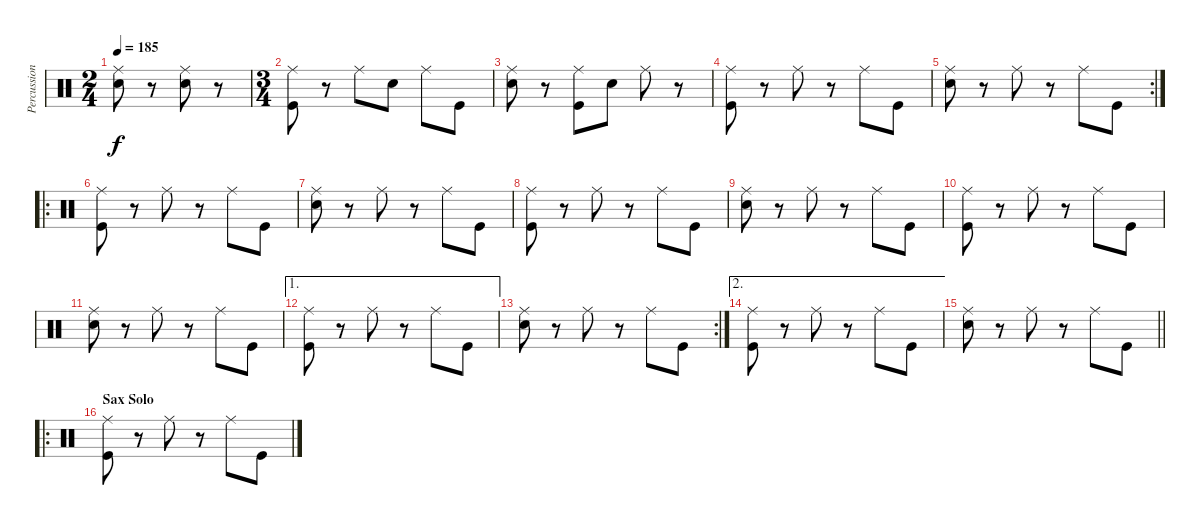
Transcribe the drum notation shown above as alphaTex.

\track ("Percussion" "Percussion") {instrument percussion}
\staff {score}
\articulation defaults
\ts (2 4)
\tempo 185
\clef neutral
\ks c
("Ride (middle)" "Snare (hit) 2").8{dy f} r.8 ("Ride (middle)" "Snare (hit) 2").8 r.8 |
\ts (3 4)
("Ride (middle)" "Kick (hit)").8 r.8 "Ride (middle)".8 "Snare (hit) 2".8 "Ride (middle)".8 "Kick (hit)".8 |
("Ride (middle)" "Snare (hit) 2").8 r.8 ("Ride (middle)" "Kick (hit)").8 "Snare (hit) 2".8 "Ride (middle)".8 r.8 |
("Ride (middle)" "Kick (hit)").8 r.8 "Ride (middle)".8 r.8 "Ride (middle)".8 "Kick (hit)".8 |
\rc 2
("Ride (middle)" "Snare (hit) 2").8 r.8 "Ride (middle)".8 r.8 "Ride (middle)".8 "Kick (hit)".8 |
\ro
("Ride (middle)" "Kick (hit)").8 r.8 "Ride (middle)".8 r.8 "Ride (middle)".8 "Kick (hit)".8 |
("Ride (middle)" "Snare (hit) 2").8 r.8 "Ride (middle)".8 r.8 "Ride (middle)".8 "Kick (hit)".8 |
("Ride (middle)" "Kick (hit)").8 r.8 "Ride (middle)".8 r.8 "Ride (middle)".8 "Kick (hit)".8 |
("Ride (middle)" "Snare (hit) 2").8 r.8 "Ride (middle)".8 r.8 "Ride (middle)".8 "Kick (hit)".8 |
("Ride (middle)" "Kick (hit)").8 r.8 "Ride (middle)".8 r.8 "Ride (middle)".8 "Kick (hit)".8 |
("Ride (middle)" "Snare (hit) 2").8 r.8 "Ride (middle)".8 r.8 "Ride (middle)".8 "Kick (hit)".8 |
\ae 1
("Ride (middle)" "Kick (hit)").8 r.8 "Ride (middle)".8 r.8 "Ride (middle)".8 "Kick (hit)".8 |
\rc 2
("Ride (middle)" "Snare (hit) 2").8 r.8 "Ride (middle)".8 r.8 "Ride (middle)".8 "Kick (hit)".8 |
\ae 2
("Ride (middle)" "Kick (hit)").8 r.8 "Ride (middle)".8 r.8 "Ride (middle)".8 "Kick (hit)".8 |
\barLineRight lightlight
("Ride (middle)" "Snare (hit) 2").8 r.8 "Ride (middle)".8 r.8 "Ride (middle)".8 "Kick (hit)".8 |
\ro
\section ("" "Sax Solo")
("Ride (middle)" "Kick (hit)").8 r.8 "Ride (middle)".8 r.8 "Ride (middle)".8 "Kick (hit)".8
